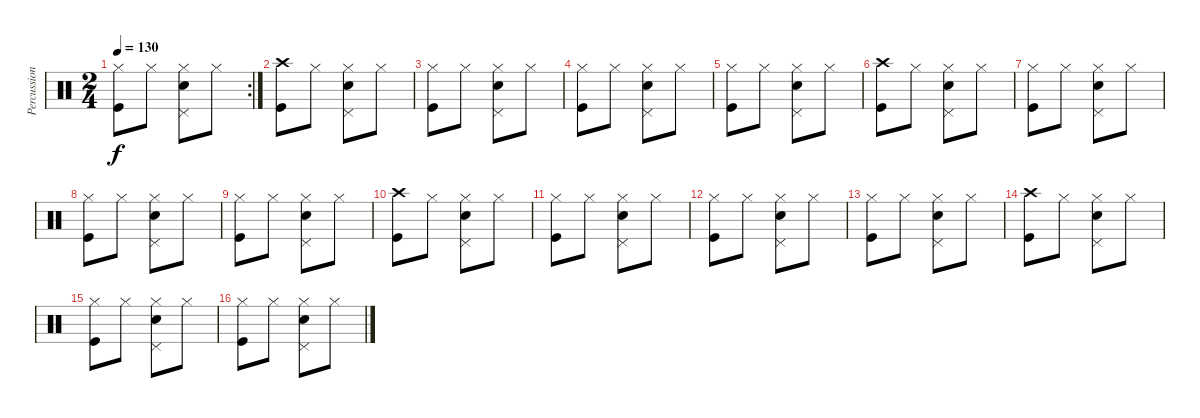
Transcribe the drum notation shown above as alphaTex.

\track ("Percussioni" "Percussion") {instrument percussion}
\staff {score}
\articulation defaults
\rc 2
\ts (2 4)
\tempo 130
\clef neutral
\ks c
("Hi-Hat (closed)" "Kick (hit)").8{dy f} "Hi-Hat (closed)".8 ("Hi-Hat (closed)" "Pedal Hi-Hat (hit)" "Snare (hit) 2").8 "Hi-Hat (closed)".8 |
("Crash high (hit)" "Kick (hit)").8 "Hi-Hat (closed)".8 ("Hi-Hat (closed)" "Pedal Hi-Hat (hit)" "Snare (hit) 2").8 "Hi-Hat (closed)".8 |
("Hi-Hat (closed)" "Kick (hit)").8 "Hi-Hat (closed)".8 ("Hi-Hat (closed)" "Pedal Hi-Hat (hit)" "Snare (hit) 2").8 "Hi-Hat (closed)".8 |
("Hi-Hat (closed)" "Kick (hit)").8 "Hi-Hat (closed)".8 ("Hi-Hat (closed)" "Pedal Hi-Hat (hit)" "Snare (hit) 2").8 "Hi-Hat (closed)".8 |
("Hi-Hat (closed)" "Kick (hit)").8 "Hi-Hat (closed)".8 ("Hi-Hat (closed)" "Pedal Hi-Hat (hit)" "Snare (hit) 2").8 "Hi-Hat (closed)".8 |
("Crash high (hit)" "Kick (hit)").8 "Hi-Hat (closed)".8 ("Hi-Hat (closed)" "Pedal Hi-Hat (hit)" "Snare (hit) 2").8 "Hi-Hat (closed)".8 |
("Hi-Hat (closed)" "Kick (hit)").8 "Hi-Hat (closed)".8 ("Hi-Hat (closed)" "Pedal Hi-Hat (hit)" "Snare (hit) 2").8 "Hi-Hat (closed)".8 |
("Hi-Hat (closed)" "Kick (hit)").8 "Hi-Hat (closed)".8 ("Hi-Hat (closed)" "Pedal Hi-Hat (hit)" "Snare (hit) 2").8 "Hi-Hat (closed)".8 |
("Hi-Hat (closed)" "Kick (hit)").8 "Hi-Hat (closed)".8 ("Hi-Hat (closed)" "Pedal Hi-Hat (hit)" "Snare (hit) 2").8 "Hi-Hat (closed)".8 |
("Crash high (hit)" "Kick (hit)").8 "Hi-Hat (closed)".8 ("Hi-Hat (closed)" "Pedal Hi-Hat (hit)" "Snare (hit) 2").8 "Hi-Hat (closed)".8 |
("Hi-Hat (closed)" "Kick (hit)").8 "Hi-Hat (closed)".8 ("Hi-Hat (closed)" "Pedal Hi-Hat (hit)" "Snare (hit) 2").8 "Hi-Hat (closed)".8 |
("Hi-Hat (closed)" "Kick (hit)").8 "Hi-Hat (closed)".8 ("Hi-Hat (closed)" "Pedal Hi-Hat (hit)" "Snare (hit) 2").8 "Hi-Hat (closed)".8 |
("Hi-Hat (closed)" "Kick (hit)").8 "Hi-Hat (closed)".8 ("Hi-Hat (closed)" "Pedal Hi-Hat (hit)" "Snare (hit) 2").8 "Hi-Hat (closed)".8 |
("Crash high (hit)" "Kick (hit)").8 "Hi-Hat (closed)".8 ("Hi-Hat (closed)" "Pedal Hi-Hat (hit)" "Snare (hit) 2").8 "Hi-Hat (closed)".8 |
("Hi-Hat (closed)" "Kick (hit)").8 "Hi-Hat (closed)".8 ("Hi-Hat (closed)" "Pedal Hi-Hat (hit)" "Snare (hit) 2").8 "Hi-Hat (closed)".8 |
("Hi-Hat (closed)" "Kick (hit)").8 "Hi-Hat (closed)".8 ("Hi-Hat (closed)" "Pedal Hi-Hat (hit)" "Snare (hit) 2").8 "Hi-Hat (closed)".8
